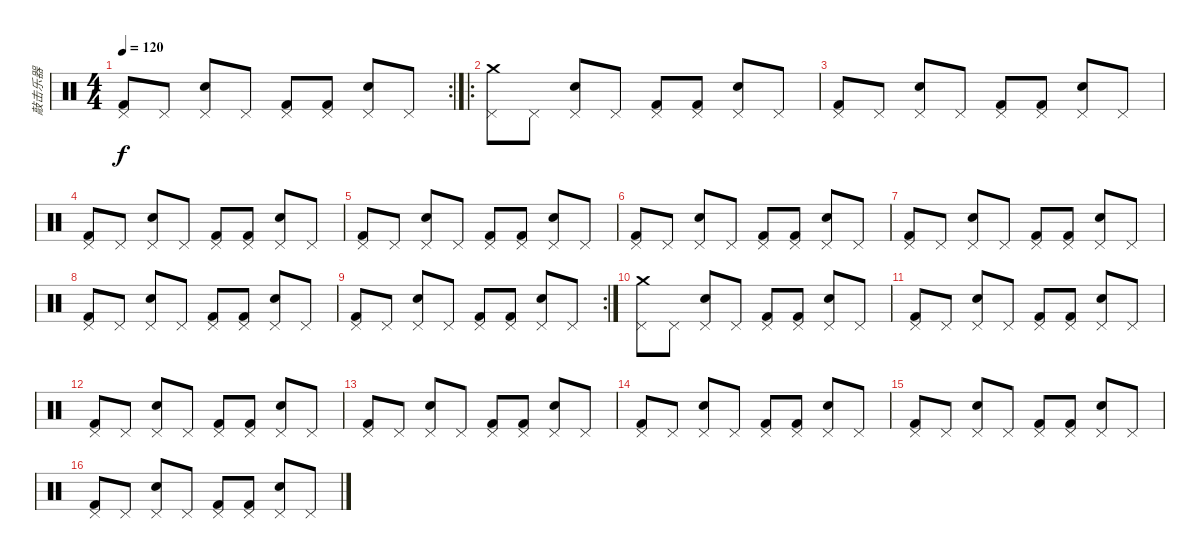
\track ("敲击乐器" "敲击乐器") {instrument percussion}
\staff {score}
\articulation defaults
\rc 2
\ts (4 4)
\tempo 120
\clef neutral
\ks c
("Kick (hit) 2" "Pedal Hi-Hat (hit)").8{dy f} "Pedal Hi-Hat (hit)".8 ("Electric Snare (hit)" "Pedal Hi-Hat (hit)").8 "Pedal Hi-Hat (hit)".8 ("Kick (hit) 2" "Pedal Hi-Hat (hit)").8 ("Kick (hit) 2" "Pedal Hi-Hat (hit)").8 ("Electric Snare (hit)" "Pedal Hi-Hat (hit)").8 "Pedal Hi-Hat (hit)".8 |
\ro
("Crash medium (hit)" "Pedal Hi-Hat (hit)").8 "Pedal Hi-Hat (hit)".8 ("Electric Snare (hit)" "Pedal Hi-Hat (hit)").8 "Pedal Hi-Hat (hit)".8 ("Kick (hit) 2" "Pedal Hi-Hat (hit)").8 ("Kick (hit) 2" "Pedal Hi-Hat (hit)").8 ("Electric Snare (hit)" "Pedal Hi-Hat (hit)").8 "Pedal Hi-Hat (hit)".8 |
("Kick (hit) 2" "Pedal Hi-Hat (hit)").8 "Pedal Hi-Hat (hit)".8 ("Electric Snare (hit)" "Pedal Hi-Hat (hit)").8 "Pedal Hi-Hat (hit)".8 ("Kick (hit) 2" "Pedal Hi-Hat (hit)").8 ("Kick (hit) 2" "Pedal Hi-Hat (hit)").8 ("Electric Snare (hit)" "Pedal Hi-Hat (hit)").8 "Pedal Hi-Hat (hit)".8 |
("Kick (hit) 2" "Pedal Hi-Hat (hit)").8 "Pedal Hi-Hat (hit)".8 ("Electric Snare (hit)" "Pedal Hi-Hat (hit)").8 "Pedal Hi-Hat (hit)".8 ("Kick (hit) 2" "Pedal Hi-Hat (hit)").8 ("Kick (hit) 2" "Pedal Hi-Hat (hit)").8 ("Electric Snare (hit)" "Pedal Hi-Hat (hit)").8 "Pedal Hi-Hat (hit)".8 |
("Kick (hit) 2" "Pedal Hi-Hat (hit)").8 "Pedal Hi-Hat (hit)".8 ("Electric Snare (hit)" "Pedal Hi-Hat (hit)").8 "Pedal Hi-Hat (hit)".8 ("Kick (hit) 2" "Pedal Hi-Hat (hit)").8 ("Kick (hit) 2" "Pedal Hi-Hat (hit)").8 ("Electric Snare (hit)" "Pedal Hi-Hat (hit)").8 "Pedal Hi-Hat (hit)".8 |
("Kick (hit) 2" "Pedal Hi-Hat (hit)").8 "Pedal Hi-Hat (hit)".8 ("Electric Snare (hit)" "Pedal Hi-Hat (hit)").8 "Pedal Hi-Hat (hit)".8 ("Kick (hit) 2" "Pedal Hi-Hat (hit)").8 ("Kick (hit) 2" "Pedal Hi-Hat (hit)").8 ("Electric Snare (hit)" "Pedal Hi-Hat (hit)").8 "Pedal Hi-Hat (hit)".8 |
("Kick (hit) 2" "Pedal Hi-Hat (hit)").8 "Pedal Hi-Hat (hit)".8 ("Electric Snare (hit)" "Pedal Hi-Hat (hit)").8 "Pedal Hi-Hat (hit)".8 ("Kick (hit) 2" "Pedal Hi-Hat (hit)").8 ("Kick (hit) 2" "Pedal Hi-Hat (hit)").8 ("Electric Snare (hit)" "Pedal Hi-Hat (hit)").8 "Pedal Hi-Hat (hit)".8 |
("Kick (hit) 2" "Pedal Hi-Hat (hit)").8 "Pedal Hi-Hat (hit)".8 ("Electric Snare (hit)" "Pedal Hi-Hat (hit)").8 "Pedal Hi-Hat (hit)".8 ("Kick (hit) 2" "Pedal Hi-Hat (hit)").8 ("Kick (hit) 2" "Pedal Hi-Hat (hit)").8 ("Electric Snare (hit)" "Pedal Hi-Hat (hit)").8 "Pedal Hi-Hat (hit)".8 |
\rc 2
("Kick (hit) 2" "Pedal Hi-Hat (hit)").8 "Pedal Hi-Hat (hit)".8 ("Electric Snare (hit)" "Pedal Hi-Hat (hit)").8 "Pedal Hi-Hat (hit)".8 ("Kick (hit) 2" "Pedal Hi-Hat (hit)").8 ("Kick (hit) 2" "Pedal Hi-Hat (hit)").8 ("Electric Snare (hit)" "Pedal Hi-Hat (hit)").8 "Pedal Hi-Hat (hit)".8 |
("Crash medium (hit)" "Pedal Hi-Hat (hit)").8 "Pedal Hi-Hat (hit)".8 ("Electric Snare (hit)" "Pedal Hi-Hat (hit)").8 "Pedal Hi-Hat (hit)".8 ("Kick (hit) 2" "Pedal Hi-Hat (hit)").8 ("Kick (hit) 2" "Pedal Hi-Hat (hit)").8 ("Electric Snare (hit)" "Pedal Hi-Hat (hit)").8 "Pedal Hi-Hat (hit)".8 |
("Kick (hit) 2" "Pedal Hi-Hat (hit)").8 "Pedal Hi-Hat (hit)".8 ("Electric Snare (hit)" "Pedal Hi-Hat (hit)").8 "Pedal Hi-Hat (hit)".8 ("Kick (hit) 2" "Pedal Hi-Hat (hit)").8 ("Kick (hit) 2" "Pedal Hi-Hat (hit)").8 ("Electric Snare (hit)" "Pedal Hi-Hat (hit)").8 "Pedal Hi-Hat (hit)".8 |
("Kick (hit) 2" "Pedal Hi-Hat (hit)").8 "Pedal Hi-Hat (hit)".8 ("Electric Snare (hit)" "Pedal Hi-Hat (hit)").8 "Pedal Hi-Hat (hit)".8 ("Kick (hit) 2" "Pedal Hi-Hat (hit)").8 ("Kick (hit) 2" "Pedal Hi-Hat (hit)").8 ("Electric Snare (hit)" "Pedal Hi-Hat (hit)").8 "Pedal Hi-Hat (hit)".8 |
("Kick (hit) 2" "Pedal Hi-Hat (hit)").8 "Pedal Hi-Hat (hit)".8 ("Electric Snare (hit)" "Pedal Hi-Hat (hit)").8 "Pedal Hi-Hat (hit)".8 ("Kick (hit) 2" "Pedal Hi-Hat (hit)").8 ("Kick (hit) 2" "Pedal Hi-Hat (hit)").8 ("Electric Snare (hit)" "Pedal Hi-Hat (hit)").8 "Pedal Hi-Hat (hit)".8 |
("Kick (hit) 2" "Pedal Hi-Hat (hit)").8 "Pedal Hi-Hat (hit)".8 ("Electric Snare (hit)" "Pedal Hi-Hat (hit)").8 "Pedal Hi-Hat (hit)".8 ("Kick (hit) 2" "Pedal Hi-Hat (hit)").8 ("Kick (hit) 2" "Pedal Hi-Hat (hit)").8 ("Electric Snare (hit)" "Pedal Hi-Hat (hit)").8 "Pedal Hi-Hat (hit)".8 |
("Kick (hit) 2" "Pedal Hi-Hat (hit)").8 "Pedal Hi-Hat (hit)".8 ("Electric Snare (hit)" "Pedal Hi-Hat (hit)").8 "Pedal Hi-Hat (hit)".8 ("Kick (hit) 2" "Pedal Hi-Hat (hit)").8 ("Kick (hit) 2" "Pedal Hi-Hat (hit)").8 ("Electric Snare (hit)" "Pedal Hi-Hat (hit)").8 "Pedal Hi-Hat (hit)".8 |
("Kick (hit) 2" "Pedal Hi-Hat (hit)").8 "Pedal Hi-Hat (hit)".8 ("Electric Snare (hit)" "Pedal Hi-Hat (hit)").8 "Pedal Hi-Hat (hit)".8 ("Kick (hit) 2" "Pedal Hi-Hat (hit)").8 ("Kick (hit) 2" "Pedal Hi-Hat (hit)").8 ("Electric Snare (hit)" "Pedal Hi-Hat (hit)").8 "Pedal Hi-Hat (hit)".8
